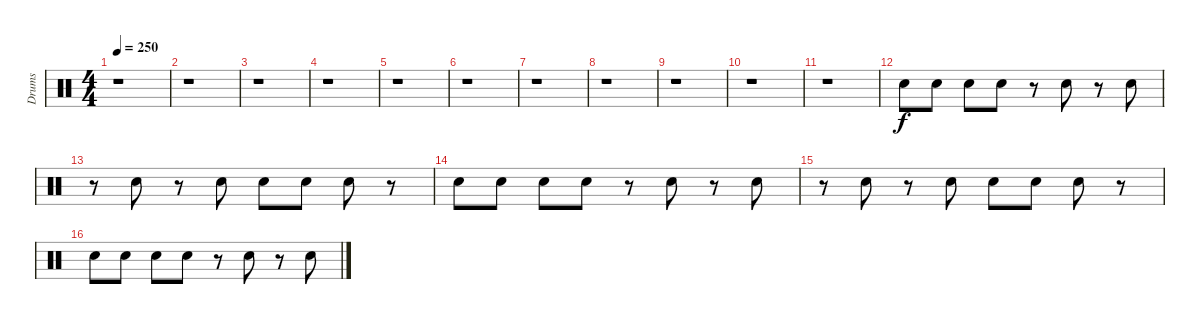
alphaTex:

\track ("Drums" "Drums") {instrument percussion}
\staff {score}
\articulation defaults
\ts (4 4)
\tempo 250
\clef neutral
\ks c
r.1{dy f} |
r.1 |
r.1 |
r.1 |
r.1 |
r.1 |
r.1 |
r.1 |
r.1 |
r.1 |
r.1 |
"Electric Snare (hit)".8 "Electric Snare (hit)".8 "Electric Snare (hit)".8 "Electric Snare (hit)".8 r.8 "Electric Snare (hit)".8 r.8 "Electric Snare (hit)".8 |
r.8 "Electric Snare (hit)".8 r.8 "Electric Snare (hit)".8 "Electric Snare (hit)".8 "Electric Snare (hit)".8 "Electric Snare (hit)".8 r.8 |
"Electric Snare (hit)".8 "Electric Snare (hit)".8 "Electric Snare (hit)".8 "Electric Snare (hit)".8 r.8 "Electric Snare (hit)".8 r.8 "Electric Snare (hit)".8 |
r.8 "Electric Snare (hit)".8 r.8 "Electric Snare (hit)".8 "Electric Snare (hit)".8 "Electric Snare (hit)".8 "Electric Snare (hit)".8 r.8 |
"Electric Snare (hit)".8 "Electric Snare (hit)".8 "Electric Snare (hit)".8 "Electric Snare (hit)".8 r.8 "Electric Snare (hit)".8 r.8 "Electric Snare (hit)".8
